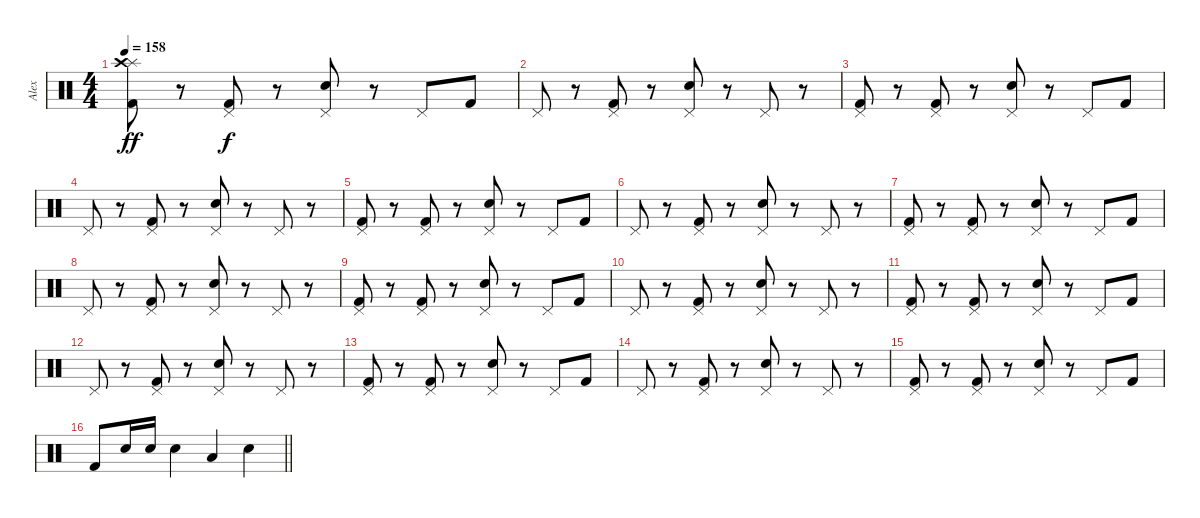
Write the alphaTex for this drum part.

\track ("Alex" "Alex") {instrument percussion}
\staff {score}
\articulation defaults
\ts (4 4)
\tempo 158
\clef neutral
\ks c
("Splash (hit)" "Kick (hit) 2" "Crash high (hit)").8{dy ff} r.8 ("Pedal Hi-Hat (hit)" "Kick (hit) 2").8{dy f} r.8 ("Pedal Hi-Hat (hit)" "Electric Snare (hit)").8 r.8 "Pedal Hi-Hat (hit)".8 "Kick (hit) 2".8 |
"Pedal Hi-Hat (hit)".8 r.8 ("Pedal Hi-Hat (hit)" "Kick (hit) 2").8 r.8 ("Pedal Hi-Hat (hit)" "Electric Snare (hit)").8 r.8 "Pedal Hi-Hat (hit)".8 r.8 |
("Pedal Hi-Hat (hit)" "Kick (hit) 2").8 r.8 ("Pedal Hi-Hat (hit)" "Kick (hit) 2").8 r.8 ("Pedal Hi-Hat (hit)" "Electric Snare (hit)").8 r.8 "Pedal Hi-Hat (hit)".8 "Kick (hit) 2".8 |
"Pedal Hi-Hat (hit)".8 r.8 ("Pedal Hi-Hat (hit)" "Kick (hit) 2").8 r.8 ("Pedal Hi-Hat (hit)" "Electric Snare (hit)").8 r.8 "Pedal Hi-Hat (hit)".8 r.8 |
("Pedal Hi-Hat (hit)" "Kick (hit) 2").8 r.8 ("Pedal Hi-Hat (hit)" "Kick (hit) 2").8 r.8 ("Pedal Hi-Hat (hit)" "Electric Snare (hit)").8 r.8 "Pedal Hi-Hat (hit)".8 "Kick (hit) 2".8 |
"Pedal Hi-Hat (hit)".8 r.8 ("Pedal Hi-Hat (hit)" "Kick (hit) 2").8 r.8 ("Pedal Hi-Hat (hit)" "Electric Snare (hit)").8 r.8 "Pedal Hi-Hat (hit)".8 r.8 |
("Pedal Hi-Hat (hit)" "Kick (hit) 2").8 r.8 ("Pedal Hi-Hat (hit)" "Kick (hit) 2").8 r.8 ("Pedal Hi-Hat (hit)" "Electric Snare (hit)").8 r.8 "Pedal Hi-Hat (hit)".8 "Kick (hit) 2".8 |
"Pedal Hi-Hat (hit)".8 r.8 ("Pedal Hi-Hat (hit)" "Kick (hit) 2").8 r.8 ("Pedal Hi-Hat (hit)" "Electric Snare (hit)").8 r.8 "Pedal Hi-Hat (hit)".8 r.8 |
("Pedal Hi-Hat (hit)" "Kick (hit) 2").8 r.8 ("Pedal Hi-Hat (hit)" "Kick (hit) 2").8 r.8 ("Pedal Hi-Hat (hit)" "Electric Snare (hit)").8 r.8 "Pedal Hi-Hat (hit)".8 "Kick (hit) 2".8 |
"Pedal Hi-Hat (hit)".8 r.8 ("Pedal Hi-Hat (hit)" "Kick (hit) 2").8 r.8 ("Pedal Hi-Hat (hit)" "Electric Snare (hit)").8 r.8 "Pedal Hi-Hat (hit)".8 r.8 |
("Pedal Hi-Hat (hit)" "Kick (hit) 2").8 r.8 ("Pedal Hi-Hat (hit)" "Kick (hit) 2").8 r.8 ("Pedal Hi-Hat (hit)" "Electric Snare (hit)").8 r.8 "Pedal Hi-Hat (hit)".8 "Kick (hit) 2".8 |
"Pedal Hi-Hat (hit)".8 r.8 ("Pedal Hi-Hat (hit)" "Kick (hit) 2").8 r.8 ("Pedal Hi-Hat (hit)" "Electric Snare (hit)").8 r.8 "Pedal Hi-Hat (hit)".8 r.8 |
("Pedal Hi-Hat (hit)" "Kick (hit) 2").8 r.8 ("Pedal Hi-Hat (hit)" "Kick (hit) 2").8 r.8 ("Pedal Hi-Hat (hit)" "Electric Snare (hit)").8 r.8 "Pedal Hi-Hat (hit)".8 "Kick (hit) 2".8 |
"Pedal Hi-Hat (hit)".8 r.8 ("Pedal Hi-Hat (hit)" "Kick (hit) 2").8 r.8 ("Pedal Hi-Hat (hit)" "Electric Snare (hit)").8 r.8 "Pedal Hi-Hat (hit)".8 r.8 |
("Pedal Hi-Hat (hit)" "Kick (hit) 2").8 r.8 ("Pedal Hi-Hat (hit)" "Kick (hit) 2").8 r.8 ("Pedal Hi-Hat (hit)" "Electric Snare (hit)").8 r.8 "Pedal Hi-Hat (hit)".8 "Kick (hit) 2".8 |
\barLineRight lightlight "Kick (hit) 2".8 "Electric Snare (hit)".16 "Electric Snare (hit)".16 "Electric Snare (hit)".4 "Low Tom (hit)".4 "Electric Snare (hit)".4
